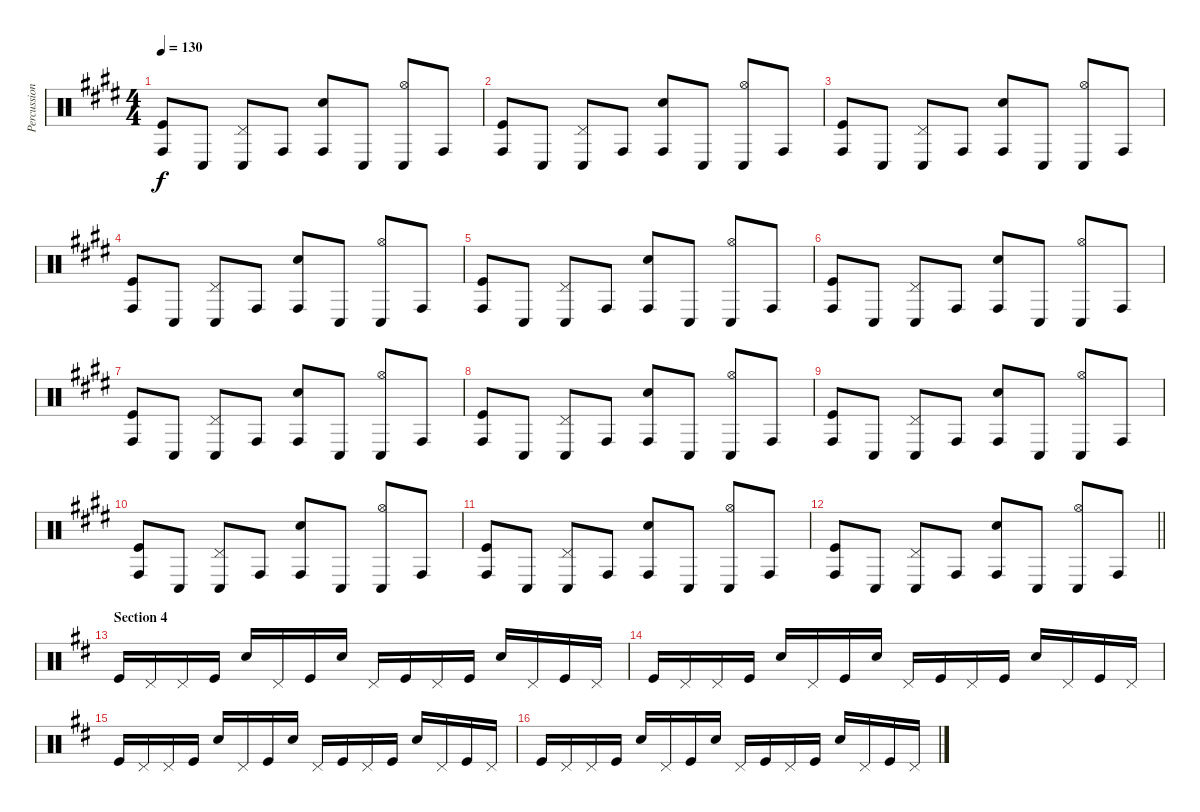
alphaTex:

\track ("Percussion" "Percussion") {instrument percussion}
\staff {score}
\articulation defaults
\ts (4 4)
\tempo 130
\clef neutral
\ks e
("Conga high (hit)" "Kick (hit)").8{dy f} "Conga low (hit)".8 ("Pedal Hi-Hat (hit)" "Conga low (hit)").8 "Conga high (hit)".8 ("Conga high (hit)" "Snare (hit) 2").8 "Conga low (hit)".8 ("Hi-Hat (open)" "Conga low (hit)").8 "Conga high (hit)".8 |
("Conga high (hit)" "Kick (hit)").8 "Conga low (hit)".8 ("Pedal Hi-Hat (hit)" "Conga low (hit)").8 "Conga high (hit)".8 ("Conga high (hit)" "Snare (hit) 2").8 "Conga low (hit)".8 ("Hi-Hat (open)" "Conga low (hit)").8 "Conga high (hit)".8 |
("Conga high (hit)" "Kick (hit)").8 "Conga low (hit)".8 ("Pedal Hi-Hat (hit)" "Conga low (hit)").8 "Conga high (hit)".8 ("Conga high (hit)" "Snare (hit) 2").8 "Conga low (hit)".8 ("Hi-Hat (open)" "Conga low (hit)").8 "Conga high (hit)".8 |
("Conga high (hit)" "Kick (hit)").8 "Conga low (hit)".8 ("Pedal Hi-Hat (hit)" "Conga low (hit)").8 "Conga high (hit)".8 ("Conga high (hit)" "Snare (hit) 2").8 "Conga low (hit)".8 ("Hi-Hat (open)" "Conga low (hit)").8 "Conga high (hit)".8 |
("Conga high (hit)" "Kick (hit)").8 "Conga low (hit)".8 ("Pedal Hi-Hat (hit)" "Conga low (hit)").8 "Conga high (hit)".8 ("Conga high (hit)" "Snare (hit) 2").8 "Conga low (hit)".8 ("Hi-Hat (open)" "Conga low (hit)").8 "Conga high (hit)".8 |
("Conga high (hit)" "Kick (hit)").8 "Conga low (hit)".8 ("Pedal Hi-Hat (hit)" "Conga low (hit)").8 "Conga high (hit)".8 ("Conga high (hit)" "Snare (hit) 2").8 "Conga low (hit)".8 ("Hi-Hat (open)" "Conga low (hit)").8 "Conga high (hit)".8 |
("Conga high (hit)" "Kick (hit)").8 "Conga low (hit)".8 ("Pedal Hi-Hat (hit)" "Conga low (hit)").8 "Conga high (hit)".8 ("Conga high (hit)" "Snare (hit) 2").8 "Conga low (hit)".8 ("Hi-Hat (open)" "Conga low (hit)").8 "Conga high (hit)".8 |
("Conga high (hit)" "Kick (hit)").8 "Conga low (hit)".8 ("Pedal Hi-Hat (hit)" "Conga low (hit)").8 "Conga high (hit)".8 ("Conga high (hit)" "Snare (hit) 2").8 "Conga low (hit)".8 ("Hi-Hat (open)" "Conga low (hit)").8 "Conga high (hit)".8 |
("Conga high (hit)" "Kick (hit)").8 "Conga low (hit)".8 ("Pedal Hi-Hat (hit)" "Conga low (hit)").8 "Conga high (hit)".8 ("Conga high (hit)" "Snare (hit) 2").8 "Conga low (hit)".8 ("Hi-Hat (open)" "Conga low (hit)").8 "Conga high (hit)".8 |
("Conga high (hit)" "Kick (hit)").8 "Conga low (hit)".8 ("Pedal Hi-Hat (hit)" "Conga low (hit)").8 "Conga high (hit)".8 ("Conga high (hit)" "Snare (hit) 2").8 "Conga low (hit)".8 ("Hi-Hat (open)" "Conga low (hit)").8 "Conga high (hit)".8 |
("Conga high (hit)" "Kick (hit)").8 "Conga low (hit)".8 ("Pedal Hi-Hat (hit)" "Conga low (hit)").8 "Conga high (hit)".8 ("Conga high (hit)" "Snare (hit) 2").8 "Conga low (hit)".8 ("Hi-Hat (open)" "Conga low (hit)").8 "Conga high (hit)".8 |
\barLineRight lightlight
("Conga high (hit)" "Kick (hit)").8 "Conga low (hit)".8 ("Pedal Hi-Hat (hit)" "Conga low (hit)").8 "Conga high (hit)".8 ("Conga high (hit)" "Snare (hit) 2").8 "Conga low (hit)".8 ("Hi-Hat (open)" "Conga low (hit)").8 "Conga high (hit)".8 |
\section ("" "Section 4")
\ks d "Kick (hit)".16 "Pedal Hi-Hat (hit)".16 "Pedal Hi-Hat (hit)".16 "Kick (hit)".16 "Snare (hit) 2".16 "Pedal Hi-Hat (hit)".16 "Kick (hit)".16 "Snare (hit) 2".16 "Pedal Hi-Hat (hit)".16 "Kick (hit)".16 "Pedal Hi-Hat (hit)".16 "Kick (hit)".16 "Snare (hit) 2".16 "Pedal Hi-Hat (hit)".16 "Kick (hit)".16 "Pedal Hi-Hat (hit)".16
|
"Kick (hit)".16 "Pedal Hi-Hat (hit)".16 "Pedal Hi-Hat (hit)".16 "Kick (hit)".16 "Snare (hit) 2".16 "Pedal Hi-Hat (hit)".16 "Kick (hit)".16 "Snare (hit) 2".16 "Pedal Hi-Hat (hit)".16 "Kick (hit)".16 "Pedal Hi-Hat (hit)".16 "Kick (hit)".16 "Snare (hit) 2".16 "Pedal Hi-Hat (hit)".16 "Kick (hit)".16 "Pedal Hi-Hat (hit)".16 |
"Kick (hit)".16 "Pedal Hi-Hat (hit)".16 "Pedal Hi-Hat (hit)".16 "Kick (hit)".16 "Snare (hit) 2".16 "Pedal Hi-Hat (hit)".16 "Kick (hit)".16 "Snare (hit) 2".16 "Pedal Hi-Hat (hit)".16 "Kick (hit)".16 "Pedal Hi-Hat (hit)".16 "Kick (hit)".16 "Snare (hit) 2".16 "Pedal Hi-Hat (hit)".16 "Kick (hit)".16 "Pedal Hi-Hat (hit)".16 |
"Kick (hit)".16 "Pedal Hi-Hat (hit)".16 "Pedal Hi-Hat (hit)".16 "Kick (hit)".16 "Snare (hit) 2".16 "Pedal Hi-Hat (hit)".16 "Kick (hit)".16 "Snare (hit) 2".16 "Pedal Hi-Hat (hit)".16 "Kick (hit)".16 "Pedal Hi-Hat (hit)".16 "Kick (hit)".16 "Snare (hit) 2".16 "Pedal Hi-Hat (hit)".16 "Kick (hit)".16 "Pedal Hi-Hat (hit)".16
